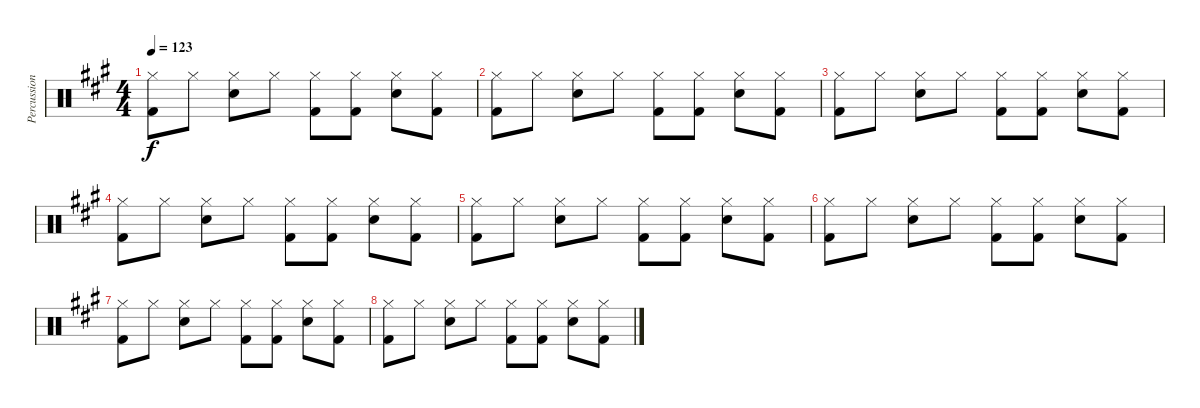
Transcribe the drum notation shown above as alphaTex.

\track ("Percussion" "Percussion") {instrument percussion}
\staff {score}
\articulation defaults
\ts (4 4)
\tempo 123
\clef neutral
\ks a
("Hi-Hat (closed)" "Kick (hit) 2").8{dy f} "Hi-Hat (closed)".8 ("Hi-Hat (closed)" "Snare (hit) 2").8 "Hi-Hat (closed)".8 ("Hi-Hat (closed)" "Kick (hit) 2").8 ("Hi-Hat (closed)" "Kick (hit) 2").8 ("Hi-Hat (closed)" "Snare (hit) 2").8 ("Hi-Hat (closed)" "Kick (hit) 2").8 |
("Hi-Hat (closed)" "Kick (hit) 2").8 "Hi-Hat (closed)".8 ("Hi-Hat (closed)" "Snare (hit) 2").8 "Hi-Hat (closed)".8 ("Hi-Hat (closed)" "Kick (hit) 2").8 ("Hi-Hat (closed)" "Kick (hit) 2").8 ("Hi-Hat (closed)" "Snare (hit) 2").8 ("Hi-Hat (closed)" "Kick (hit) 2").8 |
("Hi-Hat (closed)" "Kick (hit) 2").8 "Hi-Hat (closed)".8 ("Hi-Hat (closed)" "Snare (hit) 2").8 "Hi-Hat (closed)".8 ("Hi-Hat (closed)" "Kick (hit) 2").8 ("Hi-Hat (closed)" "Kick (hit) 2").8 ("Hi-Hat (closed)" "Snare (hit) 2").8 ("Hi-Hat (closed)" "Kick (hit) 2").8 |
("Hi-Hat (closed)" "Kick (hit) 2").8 "Hi-Hat (closed)".8 ("Hi-Hat (closed)" "Snare (hit) 2").8 "Hi-Hat (closed)".8 ("Hi-Hat (closed)" "Kick (hit) 2").8 ("Hi-Hat (closed)" "Kick (hit) 2").8 ("Hi-Hat (closed)" "Snare (hit) 2").8 ("Hi-Hat (closed)" "Kick (hit) 2").8 |
("Hi-Hat (closed)" "Kick (hit) 2").8 "Hi-Hat (closed)".8 ("Hi-Hat (closed)" "Snare (hit) 2").8 "Hi-Hat (closed)".8 ("Hi-Hat (closed)" "Kick (hit) 2").8 ("Hi-Hat (closed)" "Kick (hit) 2").8 ("Hi-Hat (closed)" "Snare (hit) 2").8 ("Hi-Hat (closed)" "Kick (hit) 2").8 |
("Hi-Hat (closed)" "Kick (hit) 2").8 "Hi-Hat (closed)".8 ("Hi-Hat (closed)" "Snare (hit) 2").8 "Hi-Hat (closed)".8 ("Hi-Hat (closed)" "Kick (hit) 2").8 ("Hi-Hat (closed)" "Kick (hit) 2").8 ("Hi-Hat (closed)" "Snare (hit) 2").8 ("Hi-Hat (closed)" "Kick (hit) 2").8 |
("Hi-Hat (closed)" "Kick (hit) 2").8 "Hi-Hat (closed)".8 ("Hi-Hat (closed)" "Snare (hit) 2").8 "Hi-Hat (closed)".8 ("Hi-Hat (closed)" "Kick (hit) 2").8 ("Hi-Hat (closed)" "Kick (hit) 2").8 ("Hi-Hat (closed)" "Snare (hit) 2").8 ("Hi-Hat (closed)" "Kick (hit) 2").8 |
("Hi-Hat (closed)" "Kick (hit) 2").8 "Hi-Hat (closed)".8 ("Hi-Hat (closed)" "Snare (hit) 2").8 "Hi-Hat (closed)".8 ("Hi-Hat (closed)" "Kick (hit) 2").8 ("Hi-Hat (closed)" "Kick (hit) 2").8 ("Hi-Hat (closed)" "Snare (hit) 2").8 ("Hi-Hat (closed)" "Kick (hit) 2").8
